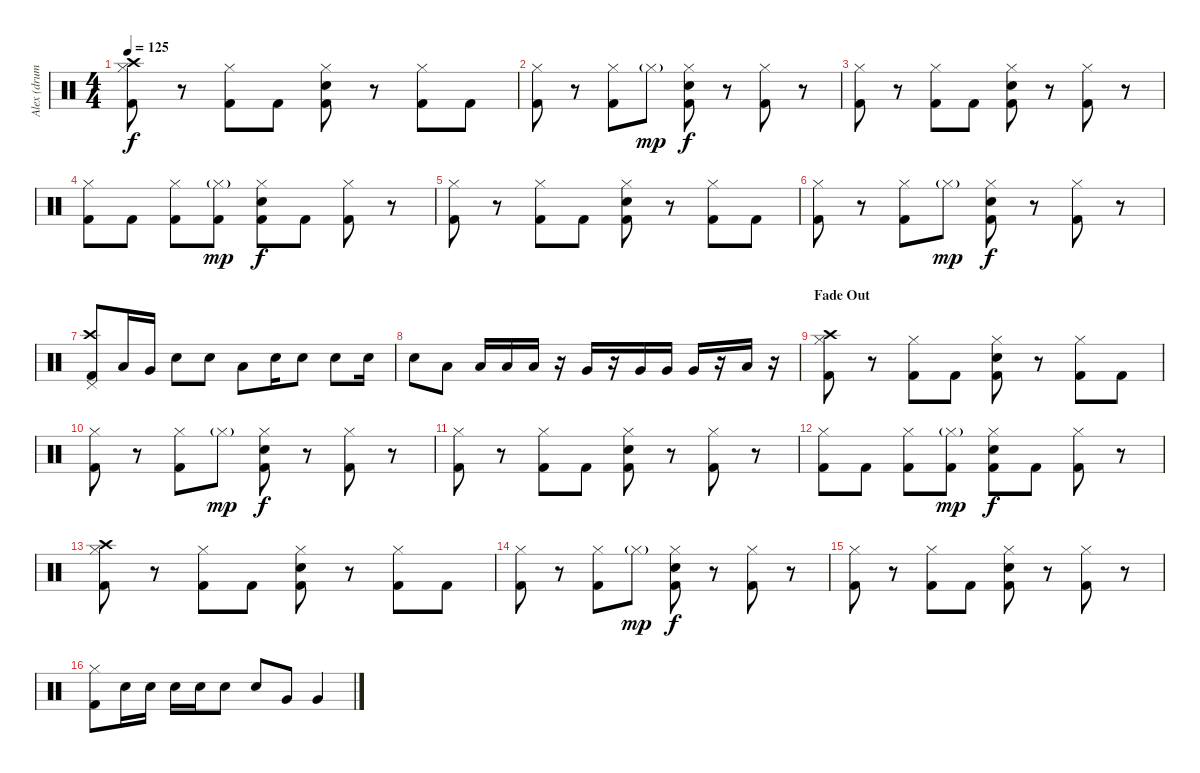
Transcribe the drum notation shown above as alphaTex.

\track ("Alex (drums)" "Alex (drum") {instrument percussion}
\staff {score}
\articulation defaults
\ts (4 4)
\tempo 125
\clef neutral
\ks c
("Hi-Hat (closed)" "Kick (hit) 2" "Crash high (hit)").8{dy f} r.8 ("Hi-Hat (closed)" "Kick (hit) 2").8 "Kick (hit) 2".8 ("Hi-Hat (closed)" "Snare (hit) 2" "Kick (hit) 2").8 r.8 ("Hi-Hat (closed)" "Kick (hit) 2").8 "Kick (hit) 2".8 |
("Hi-Hat (closed)" "Kick (hit) 2").8 r.8 ("Hi-Hat (closed)" "Kick (hit) 2").8 "Hi-Hat (closed)"{g}.8{dy mp} ("Hi-Hat (closed)" "Snare (hit) 2" "Kick (hit) 2").8{dy f} r.8 ("Hi-Hat (closed)" "Kick (hit) 2").8 r.8 |
("Hi-Hat (closed)" "Kick (hit) 2").8 r.8 ("Hi-Hat (closed)" "Kick (hit) 2").8 "Kick (hit) 2".8 ("Hi-Hat (closed)" "Snare (hit) 2" "Kick (hit) 2").8 r.8 ("Hi-Hat (closed)" "Kick (hit) 2").8 r.8 |
("Hi-Hat (closed)" "Kick (hit) 2").8 "Kick (hit) 2".8 ("Hi-Hat (closed)" "Kick (hit) 2").8 ("Hi-Hat (closed)"{g} "Kick (hit) 2").8{dy mp} ("Hi-Hat (closed)" "Snare (hit) 2" "Kick (hit) 2").8{dy f} "Kick (hit) 2".8 ("Hi-Hat (closed)" "Kick (hit) 2").8 r.8 |
("Hi-Hat (closed)" "Kick (hit) 2").8 r.8 ("Hi-Hat (closed)" "Kick (hit) 2").8 "Kick (hit) 2".8 ("Hi-Hat (closed)" "Snare (hit) 2" "Kick (hit) 2").8 r.8 ("Hi-Hat (closed)" "Kick (hit) 2").8 "Kick (hit) 2".8 |
("Hi-Hat (closed)" "Kick (hit) 2").8 r.8 ("Hi-Hat (closed)" "Kick (hit) 2").8 "Hi-Hat (closed)"{g}.8{dy mp} ("Hi-Hat (closed)" "Snare (hit) 2" "Kick (hit) 2").8{dy f} r.8 ("Hi-Hat (closed)" "Kick (hit) 2").8 r.8 |
("Pedal Hi-Hat (hit)" "Kick (hit) 2" "Crash high (hit)").8 "Low Tom (hit)".16 "Very Low Tom (hit)".16 "Snare (hit) 2".8 "Snare (hit) 2".8 "Low Tom (hit)".8 "Snare (hit) 2".16 "Snare (hit) 2".8 "Snare (hit) 2".8 "Snare (hit) 2".16 |
"Snare (hit) 2".8 "Low Tom (hit)".8 "Low Tom (hit)".16 "Low Tom (hit)".16 "Low Tom (hit)".16 r.16 "Very Low Tom (hit)".16 r.16 "Very Low Tom (hit)".16 "Very Low Tom (hit)".16 "Very Low Tom (hit)".16 r.16 "Low Floor Tom (hit)".16 r.16 |
\section ("" "Fade Out")
("Hi-Hat (closed)" "Kick (hit) 2" "Crash high (hit)").8 r.8 ("Hi-Hat (closed)" "Kick (hit) 2").8 "Kick (hit) 2".8 ("Hi-Hat (closed)" "Snare (hit) 2" "Kick (hit) 2").8 r.8 ("Hi-Hat (closed)" "Kick (hit) 2").8 "Kick (hit) 2".8 |
("Hi-Hat (closed)" "Kick (hit) 2").8 r.8 ("Hi-Hat (closed)" "Kick (hit) 2").8 "Hi-Hat (closed)"{g}.8{dy mp} ("Hi-Hat (closed)" "Snare (hit) 2" "Kick (hit) 2").8{dy f} r.8 ("Hi-Hat (closed)" "Kick (hit) 2").8 r.8 |
("Hi-Hat (closed)" "Kick (hit) 2").8 r.8 ("Hi-Hat (closed)" "Kick (hit) 2").8 "Kick (hit) 2".8 ("Hi-Hat (closed)" "Snare (hit) 2" "Kick (hit) 2").8 r.8 ("Hi-Hat (closed)" "Kick (hit) 2").8 r.8 |
("Hi-Hat (closed)" "Kick (hit) 2").8 "Kick (hit) 2".8 ("Hi-Hat (closed)" "Kick (hit) 2").8 ("Hi-Hat (closed)"{g} "Kick (hit) 2").8{dy mp} ("Hi-Hat (closed)" "Snare (hit) 2" "Kick (hit) 2").8{dy f} "Kick (hit) 2".8 ("Hi-Hat (closed)" "Kick (hit) 2").8 r.8 |
("Hi-Hat (closed)" "Kick (hit) 2" "Crash high (hit)").8 r.8 ("Hi-Hat (closed)" "Kick (hit) 2").8 "Kick (hit) 2".8 ("Hi-Hat (closed)" "Snare (hit) 2" "Kick (hit) 2").8 r.8 ("Hi-Hat (closed)" "Kick (hit) 2").8 "Kick (hit) 2".8 |
("Hi-Hat (closed)" "Kick (hit) 2").8 r.8 ("Hi-Hat (closed)" "Kick (hit) 2").8 "Hi-Hat (closed)"{g}.8{dy mp} ("Hi-Hat (closed)" "Snare (hit) 2" "Kick (hit) 2").8{dy f} r.8 ("Hi-Hat (closed)" "Kick (hit) 2").8 r.8 |
("Hi-Hat (closed)" "Kick (hit) 2").8 r.8 ("Hi-Hat (closed)" "Kick (hit) 2").8 "Kick (hit) 2".8 ("Hi-Hat (closed)" "Snare (hit) 2" "Kick (hit) 2").8 r.8 ("Hi-Hat (closed)" "Kick (hit) 2").8 r.8 |
("Hi-Hat (closed)" "Kick (hit) 2").8 "Snare (hit) 2".16 "Snare (hit) 2".16 "Snare (hit) 2".16 "Snare (hit) 2".16 "Snare (hit) 2".8 "Snare (hit) 2".8 "Very Low Tom (hit)".8 "Very Low Tom (hit)".4
